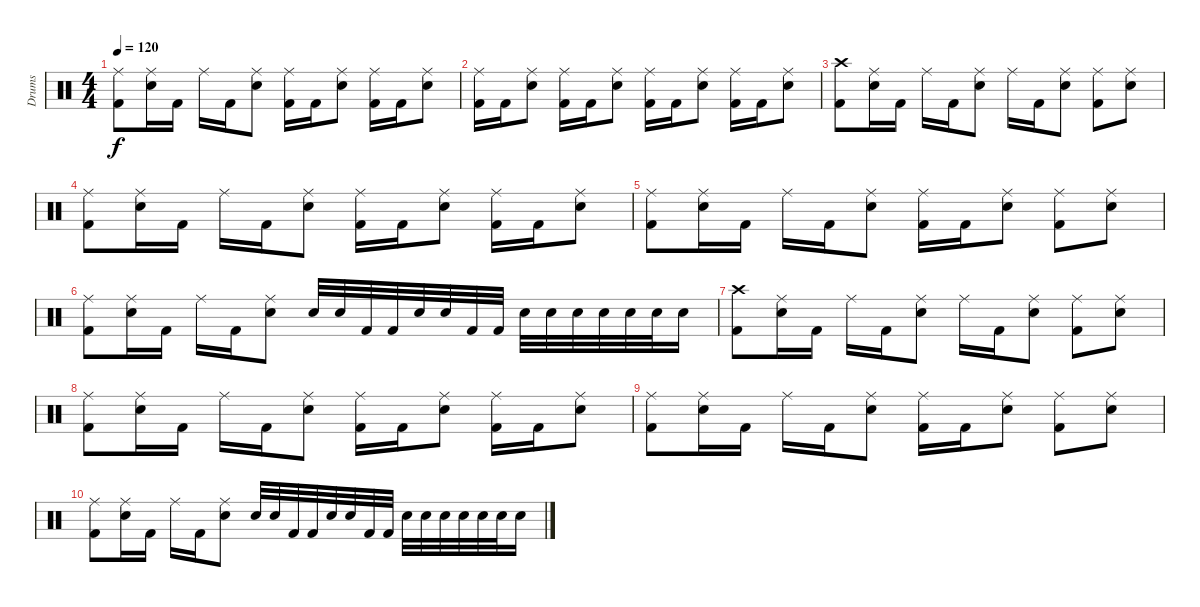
\track ("Drums" "Drums") {instrument percussion}
\staff {score}
\articulation defaults
\ts (4 4)
\tempo 120
\clef neutral
\ks c
("Ride (middle)" "Kick (hit) 2").8{dy f} ("Ride (middle)" "Electric Snare (hit)").16 "Kick (hit) 2".16 "Ride (middle)".16 "Kick (hit) 2".16 ("Ride (middle)" "Electric Snare (hit)").8 ("Ride (middle)" "Kick (hit) 2").16 "Kick (hit) 2".16 ("Ride (middle)" "Electric Snare (hit)").8 ("Ride (middle)" "Kick (hit) 2").16 "Kick (hit) 2".16 ("Ride (middle)" "Electric Snare (hit)").8 |
("Ride (middle)" "Kick (hit) 2").16 "Kick (hit) 2".16 ("Ride (middle)" "Electric Snare (hit)").8 ("Ride (middle)" "Kick (hit) 2").16 "Kick (hit) 2".16 ("Ride (middle)" "Electric Snare (hit)").8 ("Ride (middle)" "Kick (hit) 2").16 "Kick (hit) 2".16 ("Ride (middle)" "Electric Snare (hit)").8 ("Ride (middle)" "Kick (hit) 2").16 "Kick (hit) 2".16 ("Ride (middle)" "Electric Snare (hit)").8 |
("Crash high (hit)" "Kick (hit) 2").8 ("Ride (middle)" "Electric Snare (hit)").16 "Kick (hit) 2".16 "Ride (middle)".16 "Kick (hit) 2".16 ("Ride (middle)" "Electric Snare (hit)").8 "Ride (middle)".16 "Kick (hit) 2".16 ("Ride (middle)" "Electric Snare (hit)").8 ("Ride (middle)" "Kick (hit) 2").8 ("Ride (middle)" "Electric Snare (hit)").8 |
("Ride (middle)" "Kick (hit) 2").8 ("Ride (middle)" "Electric Snare (hit)").16 "Kick (hit) 2".16 "Ride (middle)".16 "Kick (hit) 2".16 ("Ride (middle)" "Electric Snare (hit)").8 ("Ride (middle)" "Kick (hit) 2").16 "Kick (hit) 2".16 ("Ride (middle)" "Electric Snare (hit)").8 ("Ride (middle)" "Kick (hit) 2").16 "Kick (hit) 2".16 ("Ride (middle)" "Electric Snare (hit)").8 |
("Ride (middle)" "Kick (hit) 2").8 ("Ride (middle)" "Electric Snare (hit)").16 "Kick (hit) 2".16 "Ride (middle)".16 "Kick (hit) 2".16 ("Ride (middle)" "Electric Snare (hit)").8 ("Ride (middle)" "Kick (hit) 2").16 "Kick (hit) 2".16 ("Ride (middle)" "Electric Snare (hit)").8 ("Ride (middle)" "Kick (hit) 2").8 ("Ride (middle)" "Electric Snare (hit)").8 |
("Ride (middle)" "Kick (hit) 2").8 ("Ride (middle)" "Electric Snare (hit)").16 "Kick (hit) 2".16 "Ride (middle)".16 "Kick (hit) 2".16 ("Ride (middle)" "Electric Snare (hit)").8 "Electric Snare (hit)".32 "Electric Snare (hit)".32 "Kick (hit) 2".32 "Kick (hit) 2".32 "Electric Snare (hit)".32 "Electric Snare (hit)".32 "Kick (hit) 2".32 "Kick (hit) 2".32 "Electric Snare (hit)".32 "Electric Snare (hit)".32 "Electric Snare (hit)".32 "Electric Snare (hit)".32 "Electric Snare (hit)".32 "Electric Snare (hit)".32 "Electric Snare (hit)".16 |
("Crash high (hit)" "Kick (hit) 2").8 ("Ride (middle)" "Electric Snare (hit)").16 "Kick (hit) 2".16 "Ride (middle)".16 "Kick (hit) 2".16 ("Ride (middle)" "Electric Snare (hit)").8 "Ride (middle)".16 "Kick (hit) 2".16 ("Ride (middle)" "Electric Snare (hit)").8 ("Ride (middle)" "Kick (hit) 2").8 ("Ride (middle)" "Electric Snare (hit)").8 |
("Ride (middle)" "Kick (hit) 2").8 ("Ride (middle)" "Electric Snare (hit)").16 "Kick (hit) 2".16 "Ride (middle)".16 "Kick (hit) 2".16 ("Ride (middle)" "Electric Snare (hit)").8 ("Ride (middle)" "Kick (hit) 2").16 "Kick (hit) 2".16 ("Ride (middle)" "Electric Snare (hit)").8 ("Ride (middle)" "Kick (hit) 2").16 "Kick (hit) 2".16 ("Ride (middle)" "Electric Snare (hit)").8 |
("Ride (middle)" "Kick (hit) 2").8 ("Ride (middle)" "Electric Snare (hit)").16 "Kick (hit) 2".16 "Ride (middle)".16 "Kick (hit) 2".16 ("Ride (middle)" "Electric Snare (hit)").8 ("Ride (middle)" "Kick (hit) 2").16 "Kick (hit) 2".16 ("Ride (middle)" "Electric Snare (hit)").8 ("Ride (middle)" "Kick (hit) 2").8 ("Ride (middle)" "Electric Snare (hit)").8 |
("Ride (middle)" "Kick (hit) 2").8 ("Ride (middle)" "Electric Snare (hit)").16 "Kick (hit) 2".16 "Ride (middle)".16 "Kick (hit) 2".16 ("Ride (middle)" "Electric Snare (hit)").8 "Electric Snare (hit)".32 "Electric Snare (hit)".32 "Kick (hit) 2".32 "Kick (hit) 2".32 "Electric Snare (hit)".32 "Electric Snare (hit)".32 "Kick (hit) 2".32 "Kick (hit) 2".32 "Electric Snare (hit)".32 "Electric Snare (hit)".32 "Electric Snare (hit)".32 "Electric Snare (hit)".32 "Electric Snare (hit)".32 "Electric Snare (hit)".32 "Electric Snare (hit)".16
